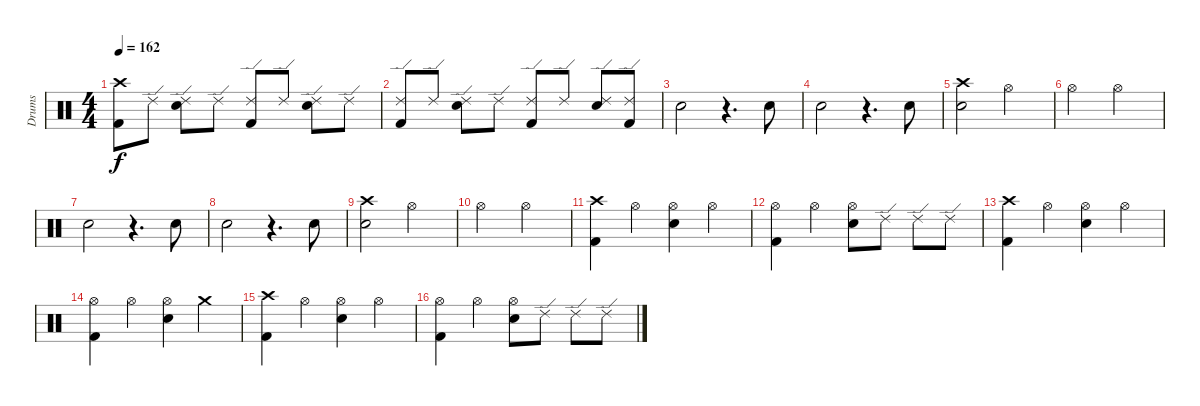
\track ("Drums" "Drums") {instrument percussion}
\staff {score}
\articulation defaults
\ts (4 4)
\tempo 162
\clef neutral
\ks c
("Crash high (hit)" "Kick (hit) 2").8{dy f} "Ride (edge) 2".8 ("Ride (edge) 2" "Snare (hit) 2").8 "Ride (edge) 2".8 ("Ride (edge) 2" "Kick (hit) 2").8 "Ride (edge) 2".8 ("Ride (edge) 2" "Snare (hit) 2").8 "Ride (edge) 2".8 |
("Ride (edge) 2" "Kick (hit) 2").8 "Ride (edge) 2".8 ("Ride (edge) 2" "Snare (hit) 2").8 "Ride (edge) 2".8 ("Ride (edge) 2" "Kick (hit) 2").8 "Ride (edge) 2".8 ("Ride (edge) 2" "Snare (hit) 2").8 ("Ride (edge) 2" "Kick (hit) 2").8 |
"Snare (hit) 2".2 r.4{d} "Snare (hit) 2".8 |
"Snare (hit) 2".2 r.4{d} "Snare (hit) 2".8 |
("Crash high (hit)" "Snare (hit) 2").2 "Hi-Hat (open)".2 |
"Hi-Hat (open)".2 "Hi-Hat (open)".2 |
"Snare (hit) 2".2 r.4{d} "Snare (hit) 2".8 |
"Snare (hit) 2".2 r.4{d} "Snare (hit) 2".8 |
("Crash high (hit)" "Snare (hit) 2").2 "Hi-Hat (open)".2 |
"Hi-Hat (open)".2 "Hi-Hat (open)".2 |
("Crash high (hit)" "Kick (hit) 2").4 "Hi-Hat (open)".4 ("Hi-Hat (open)" "Snare (hit) 2").4 "Hi-Hat (open)".4 |
("Hi-Hat (open)" "Kick (hit) 2").4 "Hi-Hat (open)".4 ("Hi-Hat (open)" "Snare (hit) 2").8 "Ride (edge) 2".8 "Ride (edge) 2".8 "Ride (edge) 2".8 |
("Crash high (hit)" "Kick (hit) 2").4 "Hi-Hat (open)".4 ("Hi-Hat (open)" "Snare (hit) 2").4 "Hi-Hat (open)".4 |
("Hi-Hat (open)" "Kick (hit) 2").4 "Hi-Hat (open)".4 ("Hi-Hat (open)" "Snare (hit) 2").4 "Crash medium (hit)".4 |
("Crash high (hit)" "Kick (hit) 2").4 "Hi-Hat (open)".4 ("Hi-Hat (open)" "Snare (hit) 2").4 "Hi-Hat (open)".4 |
("Hi-Hat (open)" "Kick (hit) 2").4 "Hi-Hat (open)".4 ("Hi-Hat (open)" "Snare (hit) 2").8 "Ride (edge) 2".8 "Ride (edge) 2".8 "Ride (edge) 2".8
